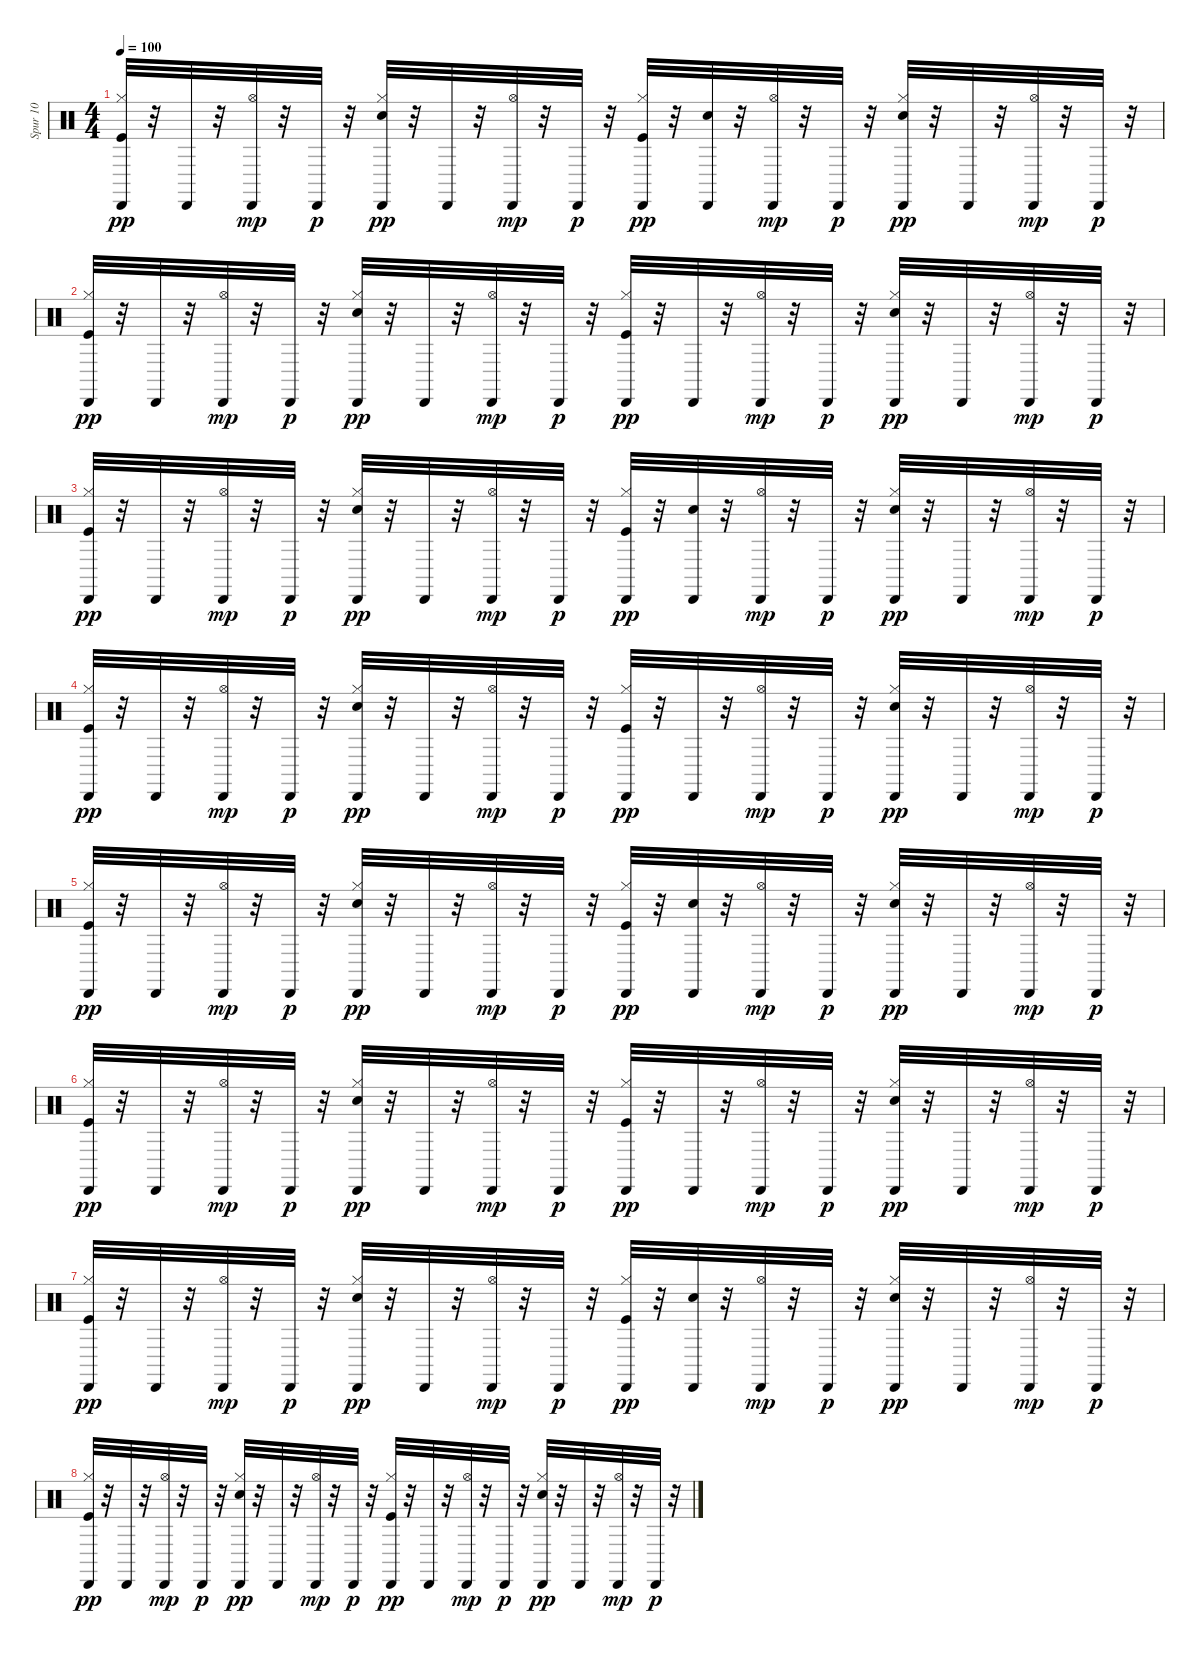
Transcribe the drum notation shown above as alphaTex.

\track ("Spur 10" "Spur 10") {instrument percussion}
\staff {score}
\articulation defaults
\ts (4 4)
\tempo 100
\clef neutral
\ks c
("Kick (hit)" "Hi-Hat (closed)" "Cabasa (hit)").32{dy pp} r.32 "Cabasa (hit)".32 r.32 ("Hi-Hat (open)" "Cabasa (hit)").32{dy mp} r.32 "Cabasa (hit)".32{dy p} r.32 ("Electric Snare (hit)" "Hi-Hat (closed)" "Cabasa (hit)").32{dy pp} r.32 "Cabasa (hit)".32 r.32 ("Hi-Hat (open)" "Cabasa (hit)").32{dy mp} r.32 "Cabasa (hit)".32{dy p} r.32 ("Kick (hit)" "Hi-Hat (closed)" "Cabasa (hit)").32{dy pp} r.32 ("Electric Snare (hit)" "Cabasa (hit)").32 r.32 ("Hi-Hat (open)" "Cabasa (hit)").32{dy mp} r.32 "Cabasa (hit)".32{dy p} r.32 ("Electric Snare (hit)" "Hi-Hat (closed)" "Cabasa (hit)").32{dy pp} r.32 "Cabasa (hit)".32 r.32 ("Hi-Hat (open)" "Cabasa (hit)").32{dy mp} r.32 "Cabasa (hit)".32{dy p} r.32 |
("Kick (hit)" "Hi-Hat (closed)" "Cabasa (hit)").32{dy pp} r.32 "Cabasa (hit)".32 r.32 ("Hi-Hat (open)" "Cabasa (hit)").32{dy mp} r.32 "Cabasa (hit)".32{dy p} r.32 ("Electric Snare (hit)" "Hi-Hat (closed)" "Cabasa (hit)").32{dy pp} r.32 "Cabasa (hit)".32 r.32 ("Hi-Hat (open)" "Cabasa (hit)").32{dy mp} r.32 "Cabasa (hit)".32{dy p} r.32 ("Kick (hit)" "Hi-Hat (closed)" "Cabasa (hit)").32{dy pp} r.32 "Cabasa (hit)".32 r.32 ("Hi-Hat (open)" "Cabasa (hit)").32{dy mp} r.32 "Cabasa (hit)".32{dy p} r.32 ("Electric Snare (hit)" "Hi-Hat (closed)" "Cabasa (hit)").32{dy pp} r.32 "Cabasa (hit)".32 r.32 ("Hi-Hat (open)" "Cabasa (hit)").32{dy mp} r.32 "Cabasa (hit)".32{dy p} r.32 |
("Kick (hit)" "Hi-Hat (closed)" "Cabasa (hit)").32{dy pp} r.32 "Cabasa (hit)".32 r.32 ("Hi-Hat (open)" "Cabasa (hit)").32{dy mp} r.32 "Cabasa (hit)".32{dy p} r.32 ("Electric Snare (hit)" "Hi-Hat (closed)" "Cabasa (hit)").32{dy pp} r.32 "Cabasa (hit)".32 r.32 ("Hi-Hat (open)" "Cabasa (hit)").32{dy mp} r.32 "Cabasa (hit)".32{dy p} r.32 ("Kick (hit)" "Hi-Hat (closed)" "Cabasa (hit)").32{dy pp} r.32 ("Electric Snare (hit)" "Cabasa (hit)").32 r.32 ("Hi-Hat (open)" "Cabasa (hit)").32{dy mp} r.32 "Cabasa (hit)".32{dy p} r.32 ("Electric Snare (hit)" "Hi-Hat (closed)" "Cabasa (hit)").32{dy pp} r.32 "Cabasa (hit)".32 r.32 ("Hi-Hat (open)" "Cabasa (hit)").32{dy mp} r.32 "Cabasa (hit)".32{dy p} r.32 |
("Kick (hit)" "Hi-Hat (closed)" "Cabasa (hit)").32{dy pp} r.32 "Cabasa (hit)".32 r.32 ("Hi-Hat (open)" "Cabasa (hit)").32{dy mp} r.32 "Cabasa (hit)".32{dy p} r.32 ("Electric Snare (hit)" "Hi-Hat (closed)" "Cabasa (hit)").32{dy pp} r.32 "Cabasa (hit)".32 r.32 ("Hi-Hat (open)" "Cabasa (hit)").32{dy mp} r.32 "Cabasa (hit)".32{dy p} r.32 ("Kick (hit)" "Hi-Hat (closed)" "Cabasa (hit)").32{dy pp} r.32 "Cabasa (hit)".32 r.32 ("Hi-Hat (open)" "Cabasa (hit)").32{dy mp} r.32 "Cabasa (hit)".32{dy p} r.32 ("Electric Snare (hit)" "Hi-Hat (closed)" "Cabasa (hit)").32{dy pp} r.32 "Cabasa (hit)".32 r.32 ("Hi-Hat (open)" "Cabasa (hit)").32{dy mp} r.32 "Cabasa (hit)".32{dy p} r.32 |
("Kick (hit)" "Hi-Hat (closed)" "Cabasa (hit)").32{dy pp} r.32 "Cabasa (hit)".32 r.32 ("Hi-Hat (open)" "Cabasa (hit)").32{dy mp} r.32 "Cabasa (hit)".32{dy p} r.32 ("Electric Snare (hit)" "Hi-Hat (closed)" "Cabasa (hit)").32{dy pp} r.32 "Cabasa (hit)".32 r.32 ("Hi-Hat (open)" "Cabasa (hit)").32{dy mp} r.32 "Cabasa (hit)".32{dy p} r.32 ("Kick (hit)" "Hi-Hat (closed)" "Cabasa (hit)").32{dy pp} r.32 ("Electric Snare (hit)" "Cabasa (hit)").32 r.32 ("Hi-Hat (open)" "Cabasa (hit)").32{dy mp} r.32 "Cabasa (hit)".32{dy p} r.32 ("Electric Snare (hit)" "Hi-Hat (closed)" "Cabasa (hit)").32{dy pp} r.32 "Cabasa (hit)".32 r.32 ("Hi-Hat (open)" "Cabasa (hit)").32{dy mp} r.32 "Cabasa (hit)".32{dy p} r.32 |
("Kick (hit)" "Hi-Hat (closed)" "Cabasa (hit)").32{dy pp} r.32 "Cabasa (hit)".32 r.32 ("Hi-Hat (open)" "Cabasa (hit)").32{dy mp} r.32 "Cabasa (hit)".32{dy p} r.32 ("Electric Snare (hit)" "Hi-Hat (closed)" "Cabasa (hit)").32{dy pp} r.32 "Cabasa (hit)".32 r.32 ("Hi-Hat (open)" "Cabasa (hit)").32{dy mp} r.32 "Cabasa (hit)".32{dy p} r.32 ("Kick (hit)" "Hi-Hat (closed)" "Cabasa (hit)").32{dy pp} r.32 "Cabasa (hit)".32 r.32 ("Hi-Hat (open)" "Cabasa (hit)").32{dy mp} r.32 "Cabasa (hit)".32{dy p} r.32 ("Electric Snare (hit)" "Hi-Hat (closed)" "Cabasa (hit)").32{dy pp} r.32 "Cabasa (hit)".32 r.32 ("Hi-Hat (open)" "Cabasa (hit)").32{dy mp} r.32 "Cabasa (hit)".32{dy p} r.32 |
("Kick (hit)" "Hi-Hat (closed)" "Cabasa (hit)").32{dy pp} r.32 "Cabasa (hit)".32 r.32 ("Hi-Hat (open)" "Cabasa (hit)").32{dy mp} r.32 "Cabasa (hit)".32{dy p} r.32 ("Electric Snare (hit)" "Hi-Hat (closed)" "Cabasa (hit)").32{dy pp} r.32 "Cabasa (hit)".32 r.32 ("Hi-Hat (open)" "Cabasa (hit)").32{dy mp} r.32 "Cabasa (hit)".32{dy p} r.32 ("Kick (hit)" "Hi-Hat (closed)" "Cabasa (hit)").32{dy pp} r.32 ("Electric Snare (hit)" "Cabasa (hit)").32 r.32 ("Hi-Hat (open)" "Cabasa (hit)").32{dy mp} r.32 "Cabasa (hit)".32{dy p} r.32 ("Electric Snare (hit)" "Hi-Hat (closed)" "Cabasa (hit)").32{dy pp} r.32 "Cabasa (hit)".32 r.32 ("Hi-Hat (open)" "Cabasa (hit)").32{dy mp} r.32 "Cabasa (hit)".32{dy p} r.32 |
("Kick (hit)" "Hi-Hat (closed)" "Cabasa (hit)").32{dy pp} r.32 "Cabasa (hit)".32 r.32 ("Hi-Hat (open)" "Cabasa (hit)").32{dy mp} r.32 "Cabasa (hit)".32{dy p} r.32 ("Electric Snare (hit)" "Hi-Hat (closed)" "Cabasa (hit)").32{dy pp} r.32 "Cabasa (hit)".32 r.32 ("Hi-Hat (open)" "Cabasa (hit)").32{dy mp} r.32 "Cabasa (hit)".32{dy p} r.32 ("Kick (hit)" "Hi-Hat (closed)" "Cabasa (hit)").32{dy pp} r.32 "Cabasa (hit)".32 r.32 ("Hi-Hat (open)" "Cabasa (hit)").32{dy mp} r.32 "Cabasa (hit)".32{dy p} r.32 ("Electric Snare (hit)" "Hi-Hat (closed)" "Cabasa (hit)").32{dy pp} r.32 "Cabasa (hit)".32 r.32 ("Hi-Hat (open)" "Cabasa (hit)").32{dy mp} r.32 "Cabasa (hit)".32{dy p} r.32
